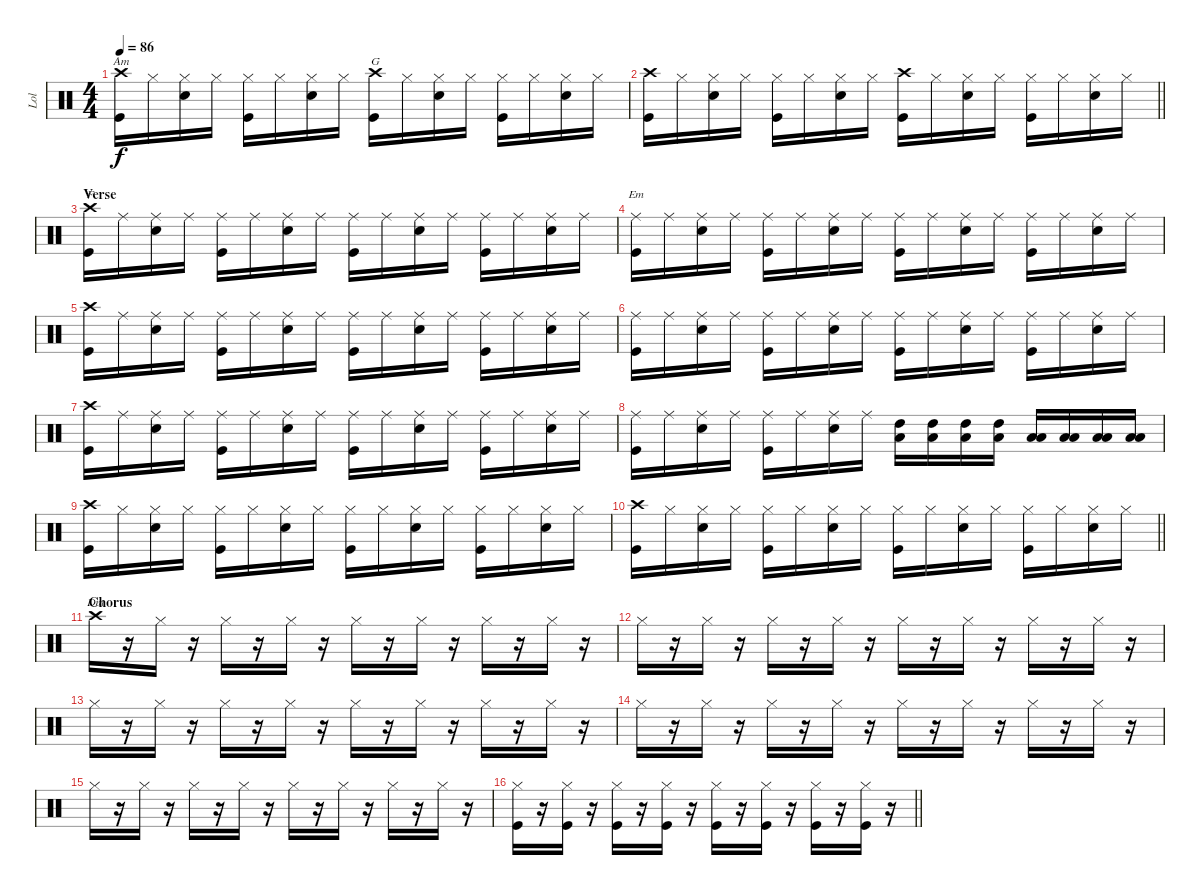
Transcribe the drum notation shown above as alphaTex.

\track ("Lol" "Lol") {instrument percussion}
\staff {score}
\articulation defaults
\chord ("Am")
\chord ("G")
\chord ("F")
\chord ("Em")
\chord ("Dm")
\ts (4 4)
\tempo 86
\clef neutral
\ks c
("Crash high (hit)" "Kick (hit)").16{ch "Am" dy f} "Hi-Hat (closed)".16 ("Hi-Hat (closed)" "Snare (hit) 2").16 "Hi-Hat (closed)".16 ("Hi-Hat (closed)" "Kick (hit)").16 "Hi-Hat (closed)".16 ("Hi-Hat (closed)" "Snare (hit) 2").16 "Hi-Hat (closed)".16 ("Crash high (hit)" "Kick (hit)").16{ch "G"} "Hi-Hat (closed)".16 ("Hi-Hat (closed)" "Snare (hit) 2").16 "Hi-Hat (closed)".16 ("Hi-Hat (closed)" "Kick (hit)").16 "Hi-Hat (closed)".16 ("Hi-Hat (closed)" "Snare (hit) 2").16 "Hi-Hat (closed)".16 |
\barLineRight lightlight
("Crash high (hit)" "Kick (hit)").16 "Hi-Hat (closed)".16 ("Hi-Hat (closed)" "Snare (hit) 2").16 "Hi-Hat (closed)".16 ("Hi-Hat (closed)" "Kick (hit)").16 "Hi-Hat (closed)".16 ("Hi-Hat (closed)" "Snare (hit) 2").16 "Hi-Hat (closed)".16 ("Crash high (hit)" "Kick (hit)").16 "Hi-Hat (closed)".16 ("Hi-Hat (closed)" "Snare (hit) 2").16 "Hi-Hat (closed)".16 ("Hi-Hat (closed)" "Kick (hit)").16 "Hi-Hat (closed)".16 ("Hi-Hat (closed)" "Snare (hit) 2").16 "Hi-Hat (closed)".16 |
\section ("" "Verse")
("Crash high (hit)" "Kick (hit)").16{ch "F"} "Ride (middle)".16 ("Ride (middle)" "Snare (hit) 2").16 "Ride (middle)".16 ("Ride (middle)" "Kick (hit)").16 "Ride (middle)".16 ("Ride (middle)" "Snare (hit) 2").16 "Ride (middle)".16 ("Ride (middle)" "Kick (hit)").16 "Ride (middle)".16 ("Ride (middle)" "Snare (hit) 2").16 "Ride (middle)".16 ("Ride (middle)" "Kick (hit)").16 "Ride (middle)".16 ("Ride (middle)" "Snare (hit) 2").16 "Ride (middle)".16 |
("Ride (middle)" "Kick (hit)").16{ch "Em"} "Ride (middle)".16 ("Ride (middle)" "Snare (hit) 2").16 "Ride (middle)".16 ("Ride (middle)" "Kick (hit)").16 "Ride (middle)".16 ("Ride (middle)" "Snare (hit) 2").16 "Ride (middle)".16 ("Ride (middle)" "Kick (hit)").16 "Ride (middle)".16 ("Ride (middle)" "Snare (hit) 2").16 "Ride (middle)".16 ("Ride (middle)" "Kick (hit)").16 "Ride (middle)".16 ("Ride (middle)" "Snare (hit) 2").16 "Ride (middle)".16 |
("Crash high (hit)" "Kick (hit)").16 "Ride (middle)".16 ("Ride (middle)" "Snare (hit) 2").16 "Ride (middle)".16 ("Ride (middle)" "Kick (hit)").16 "Ride (middle)".16 ("Ride (middle)" "Snare (hit) 2").16 "Ride (middle)".16 ("Ride (middle)" "Kick (hit)").16 "Ride (middle)".16 ("Ride (middle)" "Snare (hit) 2").16 "Ride (middle)".16 ("Ride (middle)" "Kick (hit)").16 "Ride (middle)".16 ("Ride (middle)" "Snare (hit) 2").16 "Ride (middle)".16 |
("Ride (middle)" "Kick (hit)").16 "Ride (middle)".16 ("Ride (middle)" "Snare (hit) 2").16 "Ride (middle)".16 ("Ride (middle)" "Kick (hit)").16 "Ride (middle)".16 ("Ride (middle)" "Snare (hit) 2").16 "Ride (middle)".16 ("Ride (middle)" "Kick (hit)").16 "Ride (middle)".16 ("Ride (middle)" "Snare (hit) 2").16 "Ride (middle)".16 ("Ride (middle)" "Kick (hit)").16 "Ride (middle)".16 ("Ride (middle)" "Snare (hit) 2").16 "Ride (middle)".16 |
("Crash high (hit)" "Kick (hit)").16 "Ride (middle)".16 ("Ride (middle)" "Snare (hit) 2").16 "Ride (middle)".16 ("Ride (middle)" "Kick (hit)").16 "Ride (middle)".16 ("Ride (middle)" "Snare (hit) 2").16 "Ride (middle)".16 ("Ride (middle)" "Kick (hit)").16 "Ride (middle)".16 ("Ride (middle)" "Snare (hit) 2").16 "Ride (middle)".16 ("Ride (middle)" "Kick (hit)").16 "Ride (middle)".16 ("Ride (middle)" "Snare (hit) 2").16 "Ride (middle)".16 |
("Ride (middle)" "Kick (hit)").16 "Ride (middle)".16 ("Ride (middle)" "Snare (hit) 2").16 "Ride (middle)".16 ("Ride (middle)" "Kick (hit)").16 "Ride (middle)".16 ("Ride (middle)" "Snare (hit) 2").16 "Ride (middle)".16 ("High Tom (hit)" "Low Floor Tom (hit)").16 ("High Tom (hit)" "Low Floor Tom (hit)").16 ("High Tom (hit)" "Low Floor Tom (hit)").16 ("High Tom (hit)" "Low Floor Tom (hit)").16 ("Low Tom (hit)" "Low Floor Tom (hit)").16 ("Low Tom (hit)" "Low Floor Tom (hit)").16 ("Low Tom (hit)" "Low Floor Tom (hit)").16 ("Low Tom (hit)" "Low Floor Tom (hit)").16 |
("Crash high (hit)" "Kick (hit)").16 "Hi-Hat (closed)".16 ("Hi-Hat (closed)" "Snare (hit) 2").16 "Hi-Hat (closed)".16 ("Hi-Hat (closed)" "Kick (hit)").16 "Hi-Hat (closed)".16 ("Hi-Hat (closed)" "Snare (hit) 2").16 "Hi-Hat (closed)".16 ("Hi-Hat (closed)" "Kick (hit)").16 "Hi-Hat (closed)".16 ("Hi-Hat (closed)" "Snare (hit) 2").16 "Hi-Hat (closed)".16 ("Hi-Hat (closed)" "Kick (hit)").16 "Hi-Hat (closed)".16 ("Hi-Hat (closed)" "Snare (hit) 2").16 "Hi-Hat (closed)".16 |
\barLineRight lightlight
("Crash high (hit)" "Kick (hit)").16 "Hi-Hat (closed)".16 ("Hi-Hat (closed)" "Snare (hit) 2").16 "Hi-Hat (closed)".16 ("Hi-Hat (closed)" "Kick (hit)").16 "Hi-Hat (closed)".16 ("Hi-Hat (closed)" "Snare (hit) 2").16 "Hi-Hat (closed)".16 ("Hi-Hat (closed)" "Kick (hit)").16 "Hi-Hat (closed)".16 ("Hi-Hat (closed)" "Snare (hit) 2").16 "Hi-Hat (closed)".16 ("Hi-Hat (closed)" "Kick (hit)").16 "Hi-Hat (closed)".16 ("Hi-Hat (closed)" "Snare (hit) 2").16 "Hi-Hat (closed)".16 |
\section ("" "Chorus")
"Crash high (hit)".16{ch "Dm"} r.16 "Hi-Hat (closed)".16{volume 10} r.16 "Hi-Hat (closed)".16 r.16 "Hi-Hat (closed)".16 r.16 "Hi-Hat (closed)".16 r.16 "Hi-Hat (closed)".16 r.16 "Hi-Hat (closed)".16 r.16 "Hi-Hat (closed)".16 r.16 |
"Hi-Hat (closed)".16 r.16 "Hi-Hat (closed)".16 r.16 "Hi-Hat (closed)".16 r.16 "Hi-Hat (closed)".16 r.16 "Hi-Hat (closed)".16 r.16 "Hi-Hat (closed)".16 r.16 "Hi-Hat (closed)".16 r.16 "Hi-Hat (closed)".16 r.16 |
"Hi-Hat (closed)".16 r.16 "Hi-Hat (closed)".16 r.16 "Hi-Hat (closed)".16 r.16 "Hi-Hat (closed)".16 r.16 "Hi-Hat (closed)".16 r.16 "Hi-Hat (closed)".16 r.16 "Hi-Hat (closed)".16 r.16 "Hi-Hat (closed)".16 r.16 |
"Hi-Hat (closed)".16 r.16 "Hi-Hat (closed)".16 r.16 "Hi-Hat (closed)".16 r.16 "Hi-Hat (closed)".16 r.16 "Hi-Hat (closed)".16 r.16 "Hi-Hat (closed)".16 r.16 "Hi-Hat (closed)".16 r.16 "Hi-Hat (closed)".16 r.16 |
"Hi-Hat (closed)".16 r.16 "Hi-Hat (closed)".16 r.16 "Hi-Hat (closed)".16 r.16 "Hi-Hat (closed)".16 r.16 "Hi-Hat (closed)".16 r.16 "Hi-Hat (closed)".16 r.16 "Hi-Hat (closed)".16 r.16 "Hi-Hat (closed)".16 r.16 |
\barLineRight lightlight
("Hi-Hat (closed)" "Kick (hit)").16{volume 14} r.16 ("Hi-Hat (closed)" "Kick (hit)").16 r.16 ("Hi-Hat (closed)" "Kick (hit)").16 r.16 ("Hi-Hat (closed)" "Kick (hit)").16 r.16 ("Hi-Hat (closed)" "Kick (hit)").16 r.16 ("Hi-Hat (closed)" "Kick (hit)").16 r.16 ("Hi-Hat (closed)" "Kick (hit)").16 r.16 ("Hi-Hat (closed)" "Kick (hit)").16 r.16
